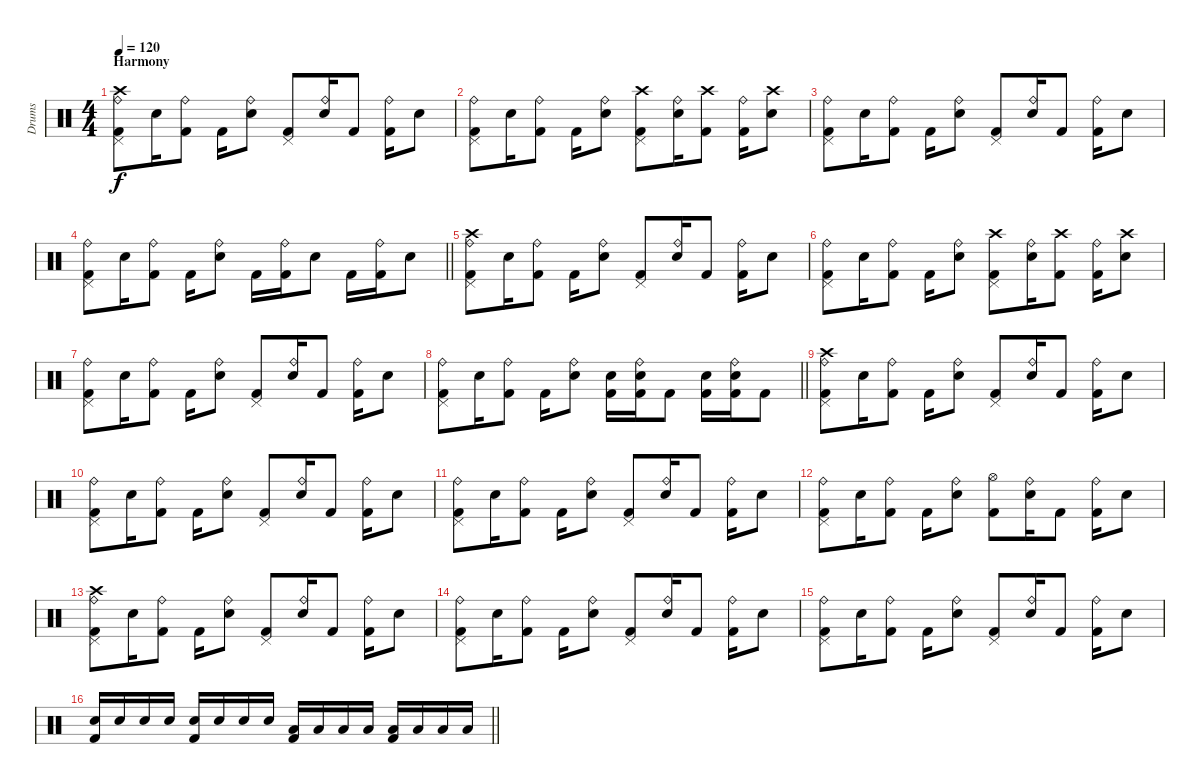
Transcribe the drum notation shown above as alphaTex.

\track ("Drums" "Drums") {instrument percussion}
\staff {score}
\articulation defaults
\ts (4 4)
\section ("" "Harmony")
\tempo 120
\clef neutral
\ks c
("Ride (bell)" "Pedal Hi-Hat (hit)" "Crash high (hit)" "Kick (hit) 2").8{dy f} "Electric Snare (hit)".16 ("Ride (bell)" "Kick (hit) 2").8 "Kick (hit) 2".16 ("Ride (bell)" "Electric Snare (hit)").8 ("Pedal Hi-Hat (hit)" "Kick (hit) 2").8 ("Ride (bell)" "Electric Snare (hit)").16 "Kick (hit) 2".8 ("Ride (bell)" "Kick (hit) 2").16 "Electric Snare (hit)".8 |
("Ride (bell)" "Pedal Hi-Hat (hit)" "Kick (hit) 2").8 "Electric Snare (hit)".16 ("Ride (bell)" "Kick (hit) 2").8 "Kick (hit) 2".16 ("Ride (bell)" "Electric Snare (hit)").8 ("Pedal Hi-Hat (hit)" "Crash high (hit)" "Kick (hit) 2").8 ("Ride (bell)" "Electric Snare (hit)").16 ("Crash high (hit)" "Kick (hit) 2").8 ("Ride (bell)" "Kick (hit) 2").16 ("Electric Snare (hit)" "Crash high (hit)").8 |
("Ride (bell)" "Pedal Hi-Hat (hit)" "Kick (hit) 2").8 "Electric Snare (hit)".16 ("Ride (bell)" "Kick (hit) 2").8 "Kick (hit) 2".16 ("Ride (bell)" "Electric Snare (hit)").8 ("Pedal Hi-Hat (hit)" "Kick (hit) 2").8 ("Ride (bell)" "Electric Snare (hit)").16 "Kick (hit) 2".8 ("Ride (bell)" "Kick (hit) 2").16 "Electric Snare (hit)".8 |
\barLineRight lightlight
("Ride (bell)" "Pedal Hi-Hat (hit)" "Kick (hit) 2").8 "Electric Snare (hit)".16 ("Ride (bell)" "Kick (hit) 2").8 "Kick (hit) 2".16 ("Ride (bell)" "Electric Snare (hit)").8 "Kick (hit) 2".16 ("Ride (bell)" "Kick (hit) 2").16 "Electric Snare (hit)".8 "Kick (hit) 2".16 ("Ride (bell)" "Kick (hit) 2").16 "Electric Snare (hit)".8 |
("Ride (bell)" "Pedal Hi-Hat (hit)" "Crash high (hit)" "Kick (hit) 2").8 "Electric Snare (hit)".16 ("Ride (bell)" "Kick (hit) 2").8 "Kick (hit) 2".16 ("Ride (bell)" "Electric Snare (hit)").8 ("Pedal Hi-Hat (hit)" "Kick (hit) 2").8 ("Ride (bell)" "Electric Snare (hit)").16 "Kick (hit) 2".8 ("Ride (bell)" "Kick (hit) 2").16 "Electric Snare (hit)".8 |
("Ride (bell)" "Pedal Hi-Hat (hit)" "Kick (hit) 2").8 "Electric Snare (hit)".16 ("Ride (bell)" "Kick (hit) 2").8 "Kick (hit) 2".16 ("Ride (bell)" "Electric Snare (hit)").8 ("Pedal Hi-Hat (hit)" "Crash high (hit)" "Kick (hit) 2").8 ("Ride (bell)" "Electric Snare (hit)").16 ("Crash high (hit)" "Kick (hit) 2").8 ("Ride (bell)" "Kick (hit) 2").16 ("Electric Snare (hit)" "Crash high (hit)").8 |
("Ride (bell)" "Pedal Hi-Hat (hit)" "Kick (hit) 2").8 "Electric Snare (hit)".16 ("Ride (bell)" "Kick (hit) 2").8 "Kick (hit) 2".16 ("Ride (bell)" "Electric Snare (hit)").8 ("Pedal Hi-Hat (hit)" "Kick (hit) 2").8 ("Ride (bell)" "Electric Snare (hit)").16 "Kick (hit) 2".8 ("Ride (bell)" "Kick (hit) 2").16 "Electric Snare (hit)".8 |
\barLineRight lightlight
("Ride (bell)" "Pedal Hi-Hat (hit)" "Kick (hit) 2").8 "Electric Snare (hit)".16 ("Ride (bell)" "Kick (hit) 2").8 "Kick (hit) 2".16 ("Ride (bell)" "Electric Snare (hit)").8 ("Electric Snare (hit)" "Kick (hit) 2").16 ("Ride (bell)" "Electric Snare (hit)" "Kick (hit) 2").16 "Kick (hit) 2".8 ("Electric Snare (hit)" "Kick (hit) 2").16 ("Ride (bell)" "Electric Snare (hit)" "Kick (hit) 2").16 "Kick (hit) 2".8 |
("Ride (bell)" "Pedal Hi-Hat (hit)" "Crash high (hit)" "Kick (hit) 2").8 "Electric Snare (hit)".16 ("Ride (bell)" "Kick (hit) 2").8 "Kick (hit) 2".16 ("Ride (bell)" "Electric Snare (hit)").8 ("Pedal Hi-Hat (hit)" "Kick (hit) 2").8 ("Ride (bell)" "Electric Snare (hit)").16 "Kick (hit) 2".8 ("Ride (bell)" "Kick (hit) 2").16 "Electric Snare (hit)".8 |
("Ride (bell)" "Pedal Hi-Hat (hit)" "Kick (hit) 2").8 "Electric Snare (hit)".16 ("Ride (bell)" "Kick (hit) 2").8 "Kick (hit) 2".16 ("Ride (bell)" "Electric Snare (hit)").8 ("Pedal Hi-Hat (hit)" "Kick (hit) 2").8 ("Ride (bell)" "Electric Snare (hit)").16 "Kick (hit) 2".8 ("Ride (bell)" "Kick (hit) 2").16 "Electric Snare (hit)".8 |
("Ride (bell)" "Pedal Hi-Hat (hit)" "Kick (hit) 2").8 "Electric Snare (hit)".16 ("Ride (bell)" "Kick (hit) 2").8 "Kick (hit) 2".16 ("Ride (bell)" "Electric Snare (hit)").8 ("Pedal Hi-Hat (hit)" "Kick (hit) 2").8 ("Ride (bell)" "Electric Snare (hit)").16 "Kick (hit) 2".8 ("Ride (bell)" "Kick (hit) 2").16 "Electric Snare (hit)".8 |
("Ride (bell)" "Pedal Hi-Hat (hit)" "Kick (hit) 2").8 "Electric Snare (hit)".16 ("Ride (bell)" "Kick (hit) 2").8 "Kick (hit) 2".16 ("Ride (bell)" "Electric Snare (hit)").8 ("Hi-Hat (open)" "Kick (hit) 2").8 ("Ride (bell)" "Electric Snare (hit)").16 "Kick (hit) 2".8 ("Ride (bell)" "Kick (hit) 2").16 "Electric Snare (hit)".8 |
("Ride (bell)" "Pedal Hi-Hat (hit)" "Crash high (hit)" "Kick (hit) 2").8 "Electric Snare (hit)".16 ("Ride (bell)" "Kick (hit) 2").8 "Kick (hit) 2".16 ("Ride (bell)" "Electric Snare (hit)").8 ("Pedal Hi-Hat (hit)" "Kick (hit) 2").8 ("Ride (bell)" "Electric Snare (hit)").16 "Kick (hit) 2".8 ("Ride (bell)" "Kick (hit) 2").16 "Electric Snare (hit)".8 |
("Ride (bell)" "Pedal Hi-Hat (hit)" "Kick (hit) 2").8 "Electric Snare (hit)".16 ("Ride (bell)" "Kick (hit) 2").8 "Kick (hit) 2".16 ("Ride (bell)" "Electric Snare (hit)").8 ("Pedal Hi-Hat (hit)" "Kick (hit) 2").8 ("Ride (bell)" "Electric Snare (hit)").16 "Kick (hit) 2".8 ("Ride (bell)" "Kick (hit) 2").16 "Electric Snare (hit)".8 |
("Ride (bell)" "Pedal Hi-Hat (hit)" "Kick (hit) 2").8 "Electric Snare (hit)".16 ("Ride (bell)" "Kick (hit) 2").8 "Kick (hit) 2".16 ("Ride (bell)" "Electric Snare (hit)").8 ("Pedal Hi-Hat (hit)" "Kick (hit) 2").8 ("Ride (bell)" "Electric Snare (hit)").16 "Kick (hit) 2".8 ("Ride (bell)" "Kick (hit) 2").16 "Electric Snare (hit)".8 |
\barLineRight lightlight
("Electric Snare (hit)" "Kick (hit) 2").16 "Electric Snare (hit)".16 "Electric Snare (hit)".16 "Electric Snare (hit)".16 ("Electric Snare (hit)" "Kick (hit) 2").16 "Electric Snare (hit)".16 "Electric Snare (hit)".16 "Electric Snare (hit)".16 ("Low Tom (hit)" "Kick (hit) 2").16 "Low Tom (hit)".16 "Low Floor Tom (hit)".16 "Low Floor Tom (hit)".16 ("Low Tom (hit)" "Kick (hit) 2").16 "Low Tom (hit)".16 "Low Floor Tom (hit)".16 "Low Floor Tom (hit)".16
